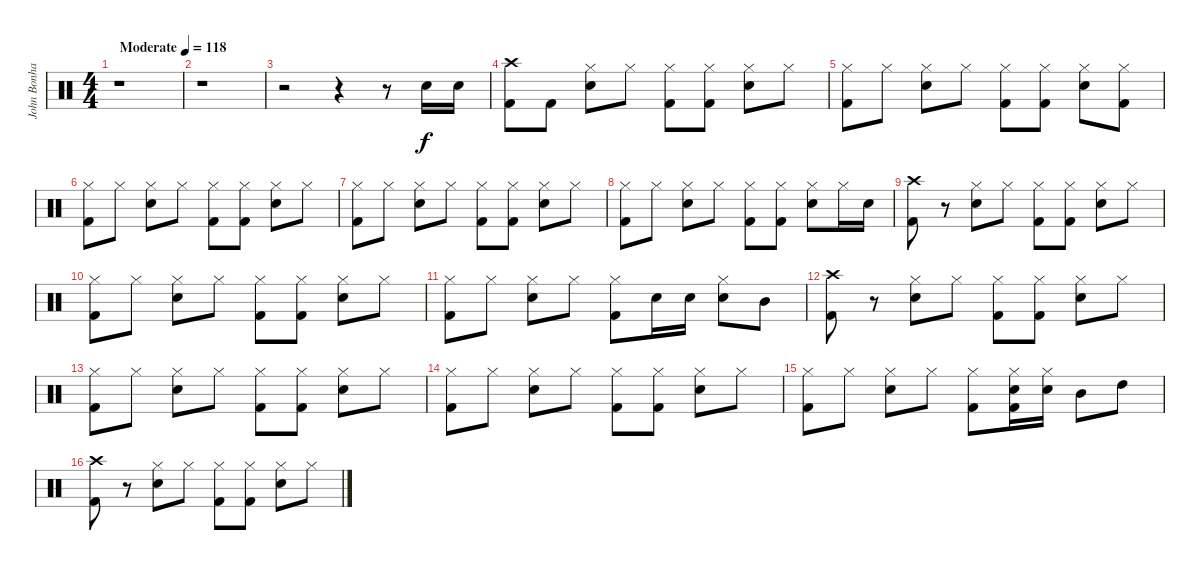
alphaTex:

\track ("John Bonham (Bateria)" "John Bonha") {instrument percussion}
\staff {score}
\articulation defaults
\ts (4 4)
\tempo (118 "Moderate")
\clef neutral
\ks c
r.1{dy f} |
r.1 |
r.2 r.4 r.8 "Snare (hit) 2".16 "Snare (hit) 2".16 |
("Crash high (hit)" "Kick (hit) 2").8 "Kick (hit) 2".8 ("Hi-Hat (closed)" "Snare (hit) 2").8 "Hi-Hat (closed)".8 ("Kick (hit) 2" "Hi-Hat (closed)").8 ("Kick (hit) 2" "Hi-Hat (closed)").8 ("Snare (hit) 2" "Hi-Hat (closed)").8 "Hi-Hat (closed)".8 |
("Hi-Hat (closed)" "Kick (hit) 2").8 "Hi-Hat (closed)".8 ("Snare (hit) 2" "Hi-Hat (closed)").8 "Hi-Hat (closed)".8 ("Kick (hit) 2" "Hi-Hat (closed)").8 ("Kick (hit) 2" "Hi-Hat (closed)").8 ("Snare (hit) 2" "Hi-Hat (closed)").8 ("Kick (hit) 2" "Hi-Hat (closed)").8 |
("Hi-Hat (closed)" "Kick (hit) 2").8 "Hi-Hat (closed)".8 ("Snare (hit) 2" "Hi-Hat (closed)").8 "Hi-Hat (closed)".8 ("Kick (hit) 2" "Hi-Hat (closed)").8 ("Kick (hit) 2" "Hi-Hat (closed)").8 ("Snare (hit) 2" "Hi-Hat (closed)").8 "Hi-Hat (closed)".8 |
("Hi-Hat (closed)" "Kick (hit) 2").8 "Hi-Hat (closed)".8 ("Snare (hit) 2" "Hi-Hat (closed)").8 "Hi-Hat (closed)".8 ("Kick (hit) 2" "Hi-Hat (closed)").8 ("Kick (hit) 2" "Hi-Hat (closed)").8 ("Snare (hit) 2" "Hi-Hat (closed)").8 "Hi-Hat (closed)".8 |
("Hi-Hat (closed)" "Kick (hit) 2").8 "Hi-Hat (closed)".8 ("Snare (hit) 2" "Hi-Hat (closed)").8 "Hi-Hat (closed)".8 ("Hi-Hat (closed)" "Kick (hit) 2").8 ("Hi-Hat (closed)" "Kick (hit) 2").8 ("Hi-Hat (closed)" "Electric Snare (hit)").8 "Hi-Hat (closed)".16 "Electric Snare (hit)".16 |
("Crash high (hit)" "Kick (hit) 2").8 r.8 ("Hi-Hat (closed)" "Snare (hit) 2").8 "Hi-Hat (closed)".8 ("Kick (hit) 2" "Hi-Hat (closed)").8 ("Kick (hit) 2" "Hi-Hat (closed)").8 ("Snare (hit) 2" "Hi-Hat (closed)").8 "Hi-Hat (closed)".8 |
("Hi-Hat (closed)" "Kick (hit) 2").8 "Hi-Hat (closed)".8 ("Snare (hit) 2" "Hi-Hat (closed)").8 "Hi-Hat (closed)".8 ("Kick (hit) 2" "Hi-Hat (closed)").8 ("Kick (hit) 2" "Hi-Hat (closed)").8 ("Snare (hit) 2" "Hi-Hat (closed)").8 "Hi-Hat (closed)".8 |
("Hi-Hat (closed)" "Kick (hit) 2").8 "Hi-Hat (closed)".8 ("Snare (hit) 2" "Hi-Hat (closed)").8 "Hi-Hat (closed)".8 ("Kick (hit) 2" "Hi-Hat (closed)").8 "Snare (hit) 2".16 "Snare (hit) 2".16 ("Snare (hit) 2" "Hi-Hat (closed)").8 "Mid Tom (hit)".8 |
("Crash high (hit)" "Kick (hit) 2").8 r.8 ("Snare (hit) 2" "Hi-Hat (closed)").8 "Hi-Hat (closed)".8 ("Hi-Hat (closed)" "Kick (hit) 2").8 ("Hi-Hat (closed)" "Kick (hit) 2").8 ("Hi-Hat (closed)" "Snare (hit) 2").8 "Hi-Hat (closed)".8 |
("Hi-Hat (closed)" "Kick (hit) 2").8 "Hi-Hat (closed)".8 ("Snare (hit) 2" "Hi-Hat (closed)").8 "Hi-Hat (closed)".8 ("Kick (hit) 2" "Hi-Hat (closed)").8 ("Kick (hit) 2" "Hi-Hat (closed)").8 ("Snare (hit) 2" "Hi-Hat (closed)").8 "Hi-Hat (closed)".8 |
("Hi-Hat (closed)" "Kick (hit) 2").8 "Hi-Hat (closed)".8 ("Snare (hit) 2" "Hi-Hat (closed)").8 "Hi-Hat (closed)".8 ("Kick (hit) 2" "Hi-Hat (closed)").8 ("Kick (hit) 2" "Hi-Hat (closed)").8 ("Snare (hit) 2" "Hi-Hat (closed)").8 "Hi-Hat (closed)".8 |
("Kick (hit) 2" "Hi-Hat (closed)").8 "Hi-Hat (closed)".8 ("Snare (hit) 2" "Hi-Hat (closed)").8 "Hi-Hat (closed)".8 ("Kick (hit) 2" "Hi-Hat (closed)").8 ("Snare (hit) 2" "Kick (hit) 2" "Hi-Hat (closed)").16 ("Snare (hit) 2" "Hi-Hat (closed)").16 "Mid Tom (hit)".8 "High Tom (hit)".8 |
("Crash high (hit)" "Kick (hit) 2").8 r.8 ("Snare (hit) 2" "Hi-Hat (closed)").8 "Hi-Hat (closed)".8 ("Hi-Hat (closed)" "Kick (hit) 2").8 ("Hi-Hat (closed)" "Kick (hit) 2").8 ("Hi-Hat (closed)" "Snare (hit) 2").8 "Hi-Hat (closed)".8
